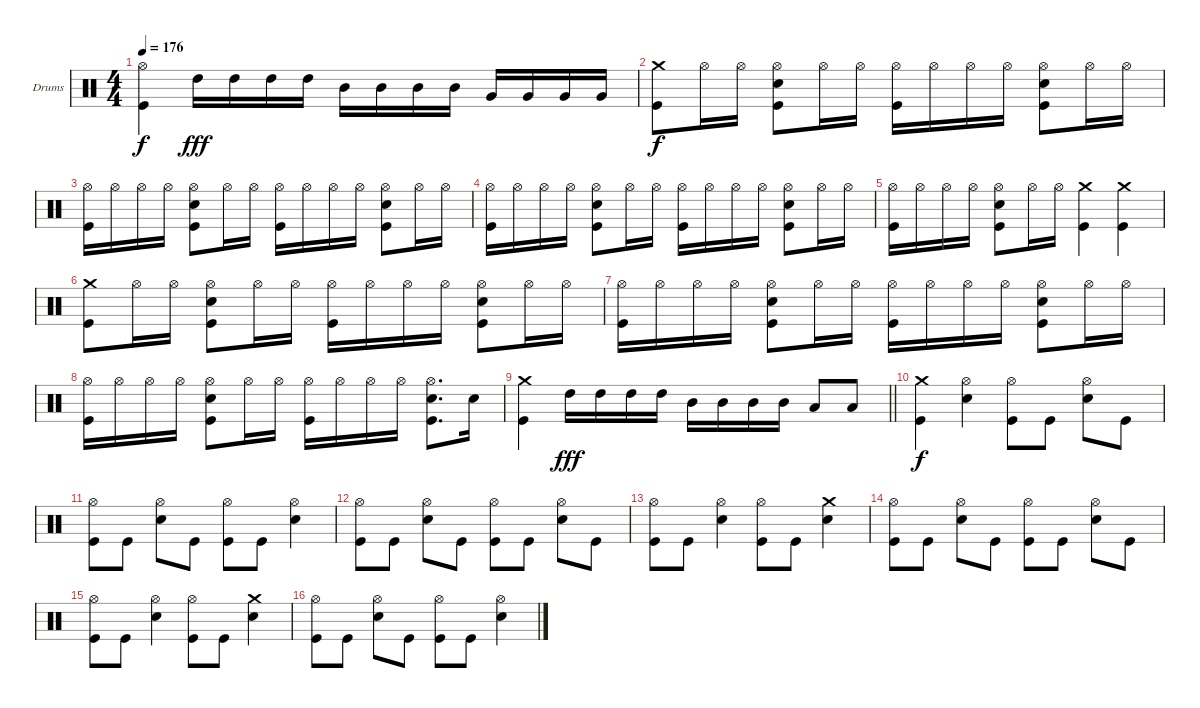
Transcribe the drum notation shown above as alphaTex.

\bracketExtendMode groupsimilarinstruments
\firstSystemTrackNameOrientation horizontal
\otherSystemsTrackNameOrientation horizontal
\track ("Drums" "Drums") {instrument percussion}
\staff {score}
\articulation defaults
\ts (4 4)
\tempo 176
\clef neutral
\ks c
("Hi-Hat (open)" "Kick (hit)").4{dy f} "High Tom (hit)".16{dy fff} "High Tom (hit)".16 "High Tom (hit)".16 "High Tom (hit)".16 "Mid Tom (hit)".16 "Mid Tom (hit)".16 "Mid Tom (hit)".16 "Mid Tom (hit)".16 "Very Low Tom (hit)".16 "Very Low Tom (hit)".16 "Very Low Tom (hit)".16 "Very Low Tom (hit)".16 |
("Crash medium (hit)" "Kick (hit)").8{dy f} "Hi-Hat (open)".16 "Hi-Hat (open)".16 ("Snare (hit) 2" "Kick (hit)" "Hi-Hat (open)").8 "Hi-Hat (open)".16 "Hi-Hat (open)".16 ("Kick (hit)" "Hi-Hat (open)").16 "Hi-Hat (open)".16 "Hi-Hat (open)".16 "Hi-Hat (open)".16 ("Snare (hit) 2" "Kick (hit)" "Hi-Hat (open)").8 "Hi-Hat (open)".16 "Hi-Hat (open)".16 |
("Kick (hit)" "Hi-Hat (open)").16 "Hi-Hat (open)".16 "Hi-Hat (open)".16 "Hi-Hat (open)".16 ("Snare (hit) 2" "Kick (hit)" "Hi-Hat (open)").8 "Hi-Hat (open)".16 "Hi-Hat (open)".16 ("Kick (hit)" "Hi-Hat (open)").16 "Hi-Hat (open)".16 "Hi-Hat (open)".16 "Hi-Hat (open)".16 ("Snare (hit) 2" "Kick (hit)" "Hi-Hat (open)").8 "Hi-Hat (open)".16 "Hi-Hat (open)".16 |
("Kick (hit)" "Hi-Hat (open)").16 "Hi-Hat (open)".16 "Hi-Hat (open)".16 "Hi-Hat (open)".16 ("Snare (hit) 2" "Kick (hit)" "Hi-Hat (open)").8 "Hi-Hat (open)".16 "Hi-Hat (open)".16 ("Kick (hit)" "Hi-Hat (open)").16 "Hi-Hat (open)".16 "Hi-Hat (open)".16 "Hi-Hat (open)".16 ("Snare (hit) 2" "Kick (hit)" "Hi-Hat (open)").8 "Hi-Hat (open)".16 "Hi-Hat (open)".16 |
("Hi-Hat (open)" "Kick (hit)").16 "Hi-Hat (open)".16 "Hi-Hat (open)".16 "Hi-Hat (open)".16 ("Hi-Hat (open)" "Snare (hit) 2" "Kick (hit)").8 "Hi-Hat (open)".16 "Hi-Hat (open)".16 ("Crash medium (hit)" "Kick (hit)").4 ("Crash medium (hit)" "Kick (hit)").4 |
("Crash medium (hit)" "Kick (hit)").8 "Hi-Hat (open)".16 "Hi-Hat (open)".16 ("Snare (hit) 2" "Kick (hit)" "Hi-Hat (open)").8 "Hi-Hat (open)".16 "Hi-Hat (open)".16 ("Kick (hit)" "Hi-Hat (open)").16 "Hi-Hat (open)".16 "Hi-Hat (open)".16 "Hi-Hat (open)".16 ("Snare (hit) 2" "Kick (hit)" "Hi-Hat (open)").8 "Hi-Hat (open)".16 "Hi-Hat (open)".16 |
("Kick (hit)" "Hi-Hat (open)").16 "Hi-Hat (open)".16 "Hi-Hat (open)".16 "Hi-Hat (open)".16 ("Snare (hit) 2" "Kick (hit)" "Hi-Hat (open)").8 "Hi-Hat (open)".16 "Hi-Hat (open)".16 ("Kick (hit)" "Hi-Hat (open)").16 "Hi-Hat (open)".16 "Hi-Hat (open)".16 "Hi-Hat (open)".16 ("Snare (hit) 2" "Kick (hit)" "Hi-Hat (open)").8 "Hi-Hat (open)".16 "Hi-Hat (open)".16 |
("Kick (hit)" "Hi-Hat (open)").16 "Hi-Hat (open)".16 "Hi-Hat (open)".16 "Hi-Hat (open)".16 ("Snare (hit) 2" "Kick (hit)" "Hi-Hat (open)").8 "Hi-Hat (open)".16 "Hi-Hat (open)".16 ("Kick (hit)" "Hi-Hat (open)").16 "Hi-Hat (open)".16 "Hi-Hat (open)".16 "Hi-Hat (open)".16 ("Hi-Hat (open)" "Snare (hit) 2" "Kick (hit)").8{d} "Snare (hit) 2".16 |
\barLineRight lightlight
("Crash medium (hit)" "Kick (hit)").4 "High Tom (hit)".16{dy fff} "High Tom (hit)".16 "High Tom (hit)".16 "High Tom (hit)".16 "Mid Tom (hit)".16 "Mid Tom (hit)".16 "Mid Tom (hit)".16 "Mid Tom (hit)".16 "Low Tom (hit)".8 "Low Tom (hit)".8 |
("Crash medium (hit)" "Kick (hit)").4{dy f} ("Hi-Hat (open)" "Snare (hit) 2").4 ("Hi-Hat (open)" "Kick (hit)").8 "Kick (hit)".8 ("Hi-Hat (open)" "Snare (hit) 2").8 "Kick (hit)".8 |
("Hi-Hat (open)" "Kick (hit)").8 "Kick (hit)".8 ("Hi-Hat (open)" "Snare (hit) 2").8 "Kick (hit)".8 ("Hi-Hat (open)" "Kick (hit)").8 "Kick (hit)".8 ("Hi-Hat (open)" "Snare (hit) 2").4 |
("Hi-Hat (open)" "Kick (hit)").8 "Kick (hit)".8 ("Hi-Hat (open)" "Snare (hit) 2").8 "Kick (hit)".8 ("Hi-Hat (open)" "Kick (hit)").8 "Kick (hit)".8 ("Hi-Hat (open)" "Snare (hit) 2").8 "Kick (hit)".8 |
("Hi-Hat (open)" "Kick (hit)").8 "Kick (hit)".8 ("Hi-Hat (open)" "Snare (hit) 2").4 ("Hi-Hat (open)" "Kick (hit)").8 "Kick (hit)".8 ("Crash medium (hit)" "Snare (hit) 2").4 |
("Hi-Hat (open)" "Kick (hit)").8 "Kick (hit)".8 ("Hi-Hat (open)" "Snare (hit) 2").8 "Kick (hit)".8 ("Hi-Hat (open)" "Kick (hit)").8 "Kick (hit)".8 ("Hi-Hat (open)" "Snare (hit) 2").8 "Kick (hit)".8 |
("Hi-Hat (open)" "Kick (hit)").8 "Kick (hit)".8 ("Hi-Hat (open)" "Snare (hit) 2").4 ("Hi-Hat (open)" "Kick (hit)").8 "Kick (hit)".8 ("Crash medium (hit)" "Snare (hit) 2").4 |
("Hi-Hat (open)" "Kick (hit)").8 "Kick (hit)".8 ("Hi-Hat (open)" "Snare (hit) 2").8 "Kick (hit)".8 ("Hi-Hat (open)" "Kick (hit)").8 "Kick (hit)".8 ("Hi-Hat (open)" "Snare (hit) 2").4
